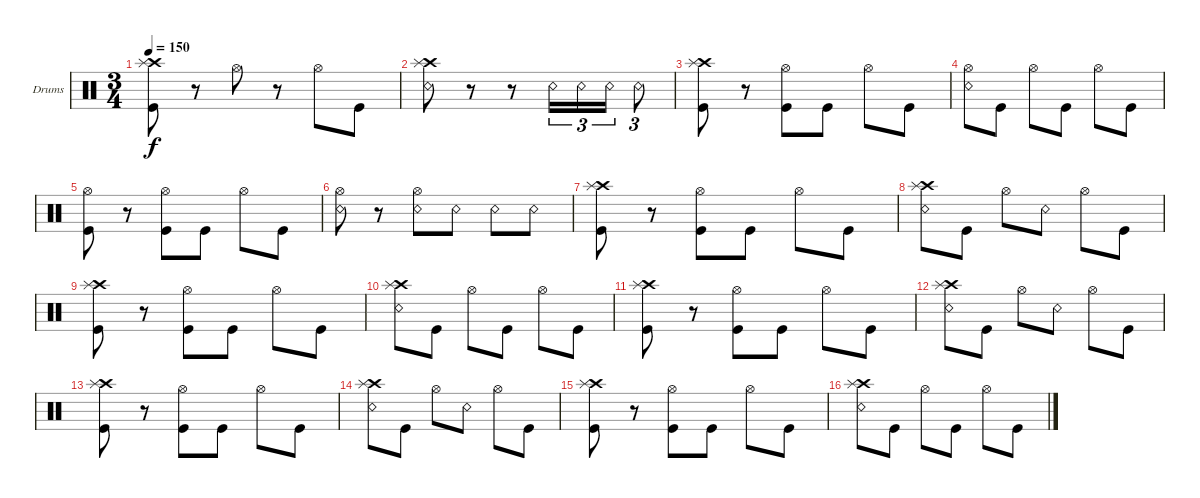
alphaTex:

\defaultSystemsLayout 4
\bracketExtendMode groupsimilarinstruments
\firstSystemTrackNameOrientation horizontal
\otherSystemsTrackNameOrientation horizontal
\track ("Scott" "Drums") {instrument percussion}
\staff {score}
\articulation defaults
\ts (3 4)
\tempo 150
\clef neutral
\scale
0.333333
\ks c
("Kick (hit)" "Crash high (hit)" "Splash (hit)").8{dy f} r.8 "Hi-Hat (open)".8 r.8 "Hi-Hat (open)".8 "Kick (hit)".8 |
\scale
0.333333 ("Snare (rim shot)" "Crash high (hit)" "Splash (hit)").8 r.8 r.8 "Snare (rim shot)".16{tu (3 2)} "Snare (rim shot)".16{tu (3 2)} "Snare (rim shot)".16{tu (3 2)} "Snare (rim shot)".8{tu (3 2)} |
\scale
0.333333 ("Kick (hit)" "Crash high (hit)" "Splash (hit)").8 r.8 ("Kick (hit)" "Hi-Hat (open)").8 "Kick (hit)".8 "Hi-Hat (open)".8 "Kick (hit)".8 |
\scale
0.333333 ("Snare (rim shot)" "Hi-Hat (open)").8 "Kick (hit)".8 "Hi-Hat (open)".8 "Kick (hit)".8 "Hi-Hat (open)".8 "Kick (hit)".8 |
\scale
0.333333 ("Kick (hit)" "Hi-Hat (open)").8 r.8 ("Kick (hit)" "Hi-Hat (open)").8 "Kick (hit)".8 "Hi-Hat (open)".8 "Kick (hit)".8 |
\scale
0.333333 ("Snare (rim shot)" "Hi-Hat (open)").8 r.8 ("Snare (rim shot)" "Hi-Hat (open)").8 "Snare (rim shot)".8 "Snare (rim shot)".8 "Snare (rim shot)".8 |
\scale
0.333333 ("Kick (hit)" "Crash high (hit)" "Splash (hit)").8 r.8 ("Kick (hit)" "Hi-Hat (open)").8 "Kick (hit)".8 "Hi-Hat (open)".8 "Kick (hit)".8 |
\scale
0.333333 ("Snare (rim shot)" "Crash high (hit)" "Splash (hit)").8 "Kick (hit)".8 "Hi-Hat (open)".8 "Snare (rim shot)".8 "Hi-Hat (open)".8 "Kick (hit)".8 |
\scale
0.333333 ("Kick (hit)" "Crash high (hit)" "Splash (hit)").8 r.8 ("Kick (hit)" "Hi-Hat (open)").8 "Kick (hit)".8 "Hi-Hat (open)".8 "Kick (hit)".8 |
\scale
0.333333 ("Snare (rim shot)" "Crash high (hit)" "Splash (hit)").8 "Kick (hit)".8 "Hi-Hat (open)".8 "Kick (hit)".8 "Hi-Hat (open)".8 "Kick (hit)".8 |
\scale
0.333333 ("Kick (hit)" "Crash high (hit)" "Splash (hit)").8 r.8 ("Kick (hit)" "Hi-Hat (open)").8 "Kick (hit)".8 "Hi-Hat (open)".8 "Kick (hit)".8 |
\scale
0.333333 ("Snare (rim shot)" "Crash high (hit)" "Splash (hit)").8 "Kick (hit)".8 "Hi-Hat (open)".8 "Snare (rim shot)".8 "Hi-Hat (open)".8 "Kick (hit)".8 |
\scale
0.333333 ("Kick (hit)" "Crash high (hit)" "Splash (hit)").8 r.8 ("Kick (hit)" "Hi-Hat (open)").8 "Kick (hit)".8 "Hi-Hat (open)".8 "Kick (hit)".8 |
\scale
0.333333 ("Snare (rim shot)" "Crash high (hit)" "Splash (hit)").8 "Kick (hit)".8 "Hi-Hat (open)".8 "Snare (rim shot)".8 "Hi-Hat (open)".8 "Kick (hit)".8 |
\scale
0.333333 ("Kick (hit)" "Crash high (hit)" "Splash (hit)").8 r.8 ("Kick (hit)" "Hi-Hat (open)").8 "Kick (hit)".8 "Hi-Hat (open)".8 "Kick (hit)".8 |
\scale
0.333333 ("Snare (rim shot)" "Crash high (hit)" "Splash (hit)").8 "Kick (hit)".8 "Hi-Hat (open)".8 "Kick (hit)".8 "Hi-Hat (open)".8 "Kick (hit)".8
